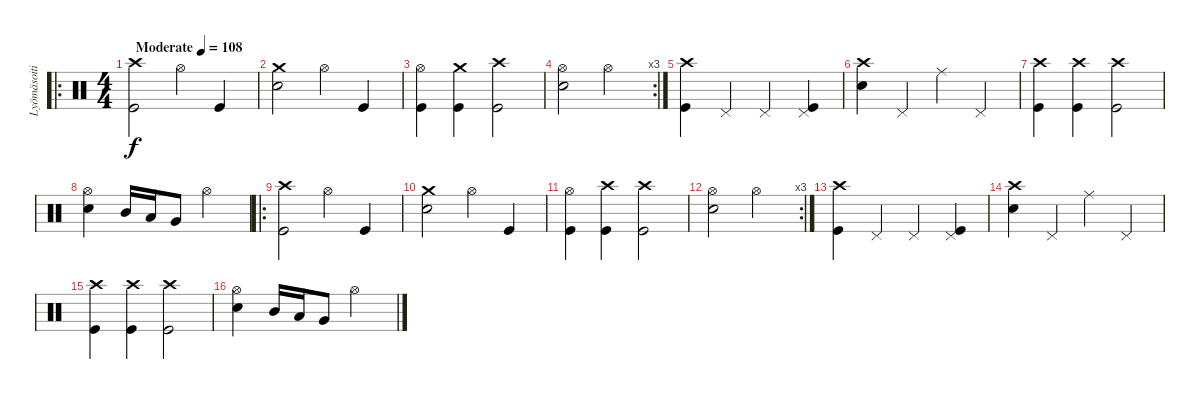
\track ("Lyömäsoitin" "Lyömäsoiti") {instrument percussion}
\staff {score}
\articulation defaults
\ro
\ts (4 4)
\tempo (108 "Moderate")
\clef neutral
\ks c
("Crash high (hit)" "Kick (hit)").2{dy f} "Hi-Hat (open)".4 "Kick (hit)".4 |
("Crash medium (hit)" "Electric Snare (hit)").2 "Hi-Hat (open)".4 "Kick (hit)".4 |
("Hi-Hat (open)" "Kick (hit)").4 ("Crash medium (hit)" "Kick (hit)").4 ("Crash high (hit)" "Kick (hit)").2 |
\rc 3
("Hi-Hat (open)" "Electric Snare (hit)").2 "Hi-Hat (open)".2 |
("Crash high (hit)" "Kick (hit)").4 "Pedal Hi-Hat (hit)".4 "Pedal Hi-Hat (hit)".4 ("Pedal Hi-Hat (hit)" "Kick (hit)").4 |
("Crash high (hit)" "Electric Snare (hit)").4 "Pedal Hi-Hat (hit)".4 "Ride (middle)".4 "Pedal Hi-Hat (hit)".4 |
("Crash high (hit)" "Kick (hit)").4 ("Crash high (hit)" "Kick (hit)").4 ("Crash high (hit)" "Kick (hit)").2 |
("Electric Snare (hit)" "Hi-Hat (open)").4 "Mid Tom (hit)".16 "Low Tom (hit)".16 "Very Low Tom (hit)".8 "Hi-Hat (open)".2 |
\ro
("Crash high (hit)" "Kick (hit)").2 "Hi-Hat (open)".4 "Kick (hit)".4 |
("Crash medium (hit)" "Electric Snare (hit)").2 "Hi-Hat (open)".4 "Kick (hit)".4 |
("Hi-Hat (open)" "Kick (hit)").4 ("Crash high (hit)" "Kick (hit)").4 ("Crash high (hit)" "Kick (hit)").2 |
\rc 3
("Hi-Hat (open)" "Electric Snare (hit)").2 "Hi-Hat (open)".2 |
("Crash high (hit)" "Kick (hit)").4 "Pedal Hi-Hat (hit)".4 "Pedal Hi-Hat (hit)".4 ("Pedal Hi-Hat (hit)" "Kick (hit)").4 |
("Crash high (hit)" "Electric Snare (hit)").4 "Pedal Hi-Hat (hit)".4 "Ride (middle)".4 "Pedal Hi-Hat (hit)".4 |
("Crash high (hit)" "Kick (hit)").4 ("Crash high (hit)" "Kick (hit)").4 ("Crash high (hit)" "Kick (hit)").2 |
("Electric Snare (hit)" "Hi-Hat (open)").4 "Mid Tom (hit)".16 "Low Tom (hit)".16 "Very Low Tom (hit)".8 "Hi-Hat (open)".2
